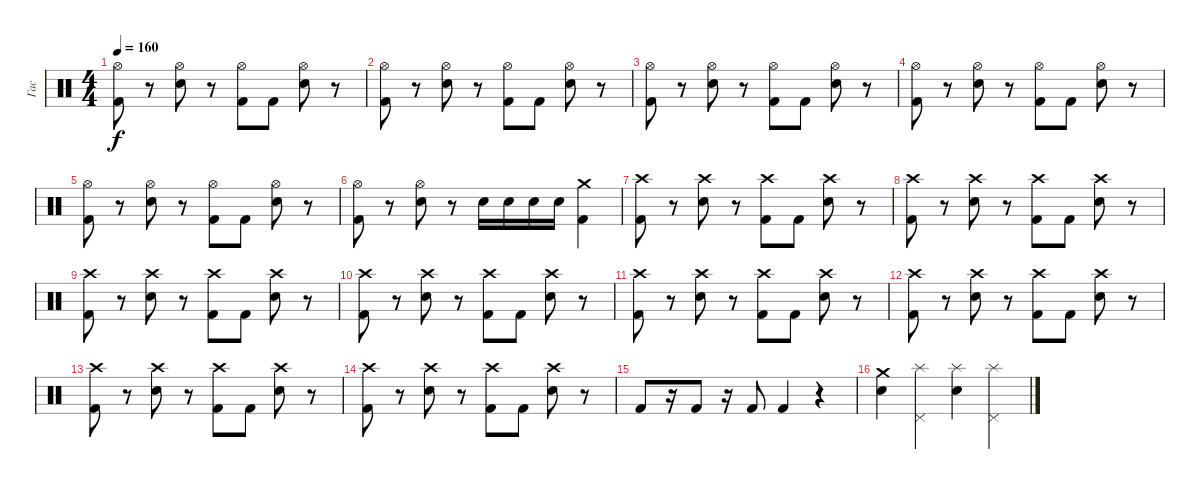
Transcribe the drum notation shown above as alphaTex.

\track ("Гас" "Гас") {instrument percussion}
\staff {score}
\articulation defaults
\ts (4 4)
\tempo 160
\clef neutral
\ks c
("Hi-Hat (open)" "Kick (hit) 2").8{dy f} r.8 ("Hi-Hat (open)" "Electric Snare (hit)").8 r.8 ("Hi-Hat (open)" "Kick (hit) 2").8 "Kick (hit) 2".8 ("Hi-Hat (open)" "Electric Snare (hit)").8 r.8 |
("Hi-Hat (open)" "Kick (hit) 2").8 r.8 ("Hi-Hat (open)" "Electric Snare (hit)").8 r.8 ("Hi-Hat (open)" "Kick (hit) 2").8 "Kick (hit) 2".8 ("Hi-Hat (open)" "Electric Snare (hit)").8 r.8 |
("Hi-Hat (open)" "Kick (hit) 2").8 r.8 ("Hi-Hat (open)" "Electric Snare (hit)").8 r.8 ("Hi-Hat (open)" "Kick (hit) 2").8 "Kick (hit) 2".8 ("Hi-Hat (open)" "Electric Snare (hit)").8 r.8 |
("Hi-Hat (open)" "Kick (hit) 2").8 r.8 ("Hi-Hat (open)" "Electric Snare (hit)").8 r.8 ("Hi-Hat (open)" "Kick (hit) 2").8 "Kick (hit) 2".8 ("Hi-Hat (open)" "Electric Snare (hit)").8 r.8 |
("Hi-Hat (open)" "Kick (hit) 2").8 r.8 ("Hi-Hat (open)" "Electric Snare (hit)").8 r.8 ("Hi-Hat (open)" "Kick (hit) 2").8 "Kick (hit) 2".8 ("Hi-Hat (open)" "Electric Snare (hit)").8 r.8 |
("Hi-Hat (open)" "Kick (hit) 2").8 r.8 ("Hi-Hat (open)" "Electric Snare (hit)").8 r.8 "Electric Snare (hit)".16 "Electric Snare (hit)".16 "Electric Snare (hit)".16 "Electric Snare (hit)".16 ("Crash medium (hit)" "Kick (hit) 2").4 |
("Crash high (hit)" "Kick (hit) 2").8 r.8 ("Crash high (hit)" "Electric Snare (hit)").8 r.8 ("Crash high (hit)" "Kick (hit) 2").8 "Kick (hit) 2".8 ("Crash high (hit)" "Electric Snare (hit)").8 r.8 |
("Crash high (hit)" "Kick (hit) 2").8 r.8 ("Crash high (hit)" "Electric Snare (hit)").8 r.8 ("Crash high (hit)" "Kick (hit) 2").8 "Kick (hit) 2".8 ("Crash high (hit)" "Electric Snare (hit)").8 r.8 |
("Crash high (hit)" "Kick (hit) 2").8 r.8 ("Crash high (hit)" "Electric Snare (hit)").8 r.8 ("Crash high (hit)" "Kick (hit) 2").8 "Kick (hit) 2".8 ("Crash high (hit)" "Electric Snare (hit)").8 r.8 |
("Crash high (hit)" "Kick (hit) 2").8 r.8 ("Crash high (hit)" "Electric Snare (hit)").8 r.8 ("Crash high (hit)" "Kick (hit) 2").8 "Kick (hit) 2".8 ("Crash high (hit)" "Electric Snare (hit)").8 r.8 |
("Crash high (hit)" "Kick (hit) 2").8 r.8 ("Crash high (hit)" "Electric Snare (hit)").8 r.8 ("Crash high (hit)" "Kick (hit) 2").8 "Kick (hit) 2".8 ("Crash high (hit)" "Electric Snare (hit)").8 r.8 |
("Crash high (hit)" "Kick (hit) 2").8 r.8 ("Crash high (hit)" "Electric Snare (hit)").8 r.8 ("Crash high (hit)" "Kick (hit) 2").8 "Kick (hit) 2".8 ("Crash high (hit)" "Electric Snare (hit)").8 r.8 |
("Crash high (hit)" "Kick (hit) 2").8 r.8 ("Crash high (hit)" "Electric Snare (hit)").8 r.8 ("Crash high (hit)" "Kick (hit) 2").8 "Kick (hit) 2".8 ("Crash high (hit)" "Electric Snare (hit)").8 r.8 |
("Crash high (hit)" "Kick (hit) 2").8 r.8 ("Crash high (hit)" "Electric Snare (hit)").8 r.8 ("Crash high (hit)" "Kick (hit) 2").8 "Kick (hit) 2".8 ("Crash high (hit)" "Electric Snare (hit)").8 r.8 |
"Kick (hit) 2".8 r.16 "Kick (hit) 2".8 r.16 "Kick (hit) 2".8 "Kick (hit) 2".4 r.4 |
("Crash medium (hit)" "Electric Snare (hit)").4 ("Splash (hit)" "Pedal Hi-Hat (hit)").4 ("Splash (hit)" "Electric Snare (hit)").4 ("Splash (hit)" "Pedal Hi-Hat (hit)").4
